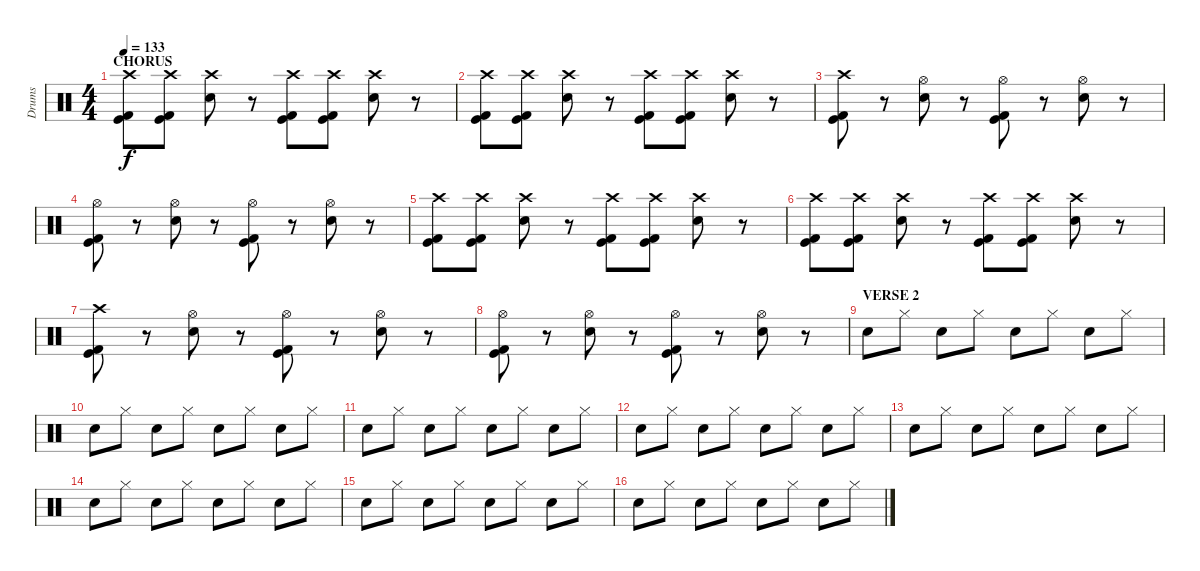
\track ("Drums" "Drums") {instrument percussion}
\staff {score}
\articulation defaults
\ts (4 4)
\section ("" "CHORUS")
\tempo 133
\clef neutral
\ks c
("Crash high (hit)" "Kick (hit) 2" "Kick (hit)").8{dy f} ("Crash high (hit)" "Kick (hit) 2" "Kick (hit)").8 ("Crash high (hit)" "Electric Snare (hit)").8 r.8 ("Crash high (hit)" "Kick (hit) 2" "Kick (hit)").8 ("Crash high (hit)" "Kick (hit) 2" "Kick (hit)").8 ("Crash high (hit)" "Electric Snare (hit)").8 r.8 |
("Crash high (hit)" "Kick (hit) 2" "Kick (hit)").8 ("Crash high (hit)" "Kick (hit) 2" "Kick (hit)").8 ("Crash high (hit)" "Electric Snare (hit)").8 r.8 ("Crash high (hit)" "Kick (hit) 2" "Kick (hit)").8 ("Crash high (hit)" "Kick (hit) 2" "Kick (hit)").8 ("Crash high (hit)" "Electric Snare (hit)").8 r.8 |
("Crash high (hit)" "Kick (hit) 2" "Kick (hit)").8 r.8 ("Hi-Hat (open)" "Electric Snare (hit)").8 r.8 ("Hi-Hat (open)" "Kick (hit) 2" "Kick (hit)").8 r.8 ("Hi-Hat (open)" "Electric Snare (hit)").8 r.8 |
("Hi-Hat (open)" "Kick (hit) 2" "Kick (hit)").8 r.8 ("Hi-Hat (open)" "Electric Snare (hit)").8 r.8 ("Hi-Hat (open)" "Kick (hit) 2" "Kick (hit)").8 r.8 ("Hi-Hat (open)" "Electric Snare (hit)").8 r.8 |
("Crash high (hit)" "Kick (hit) 2" "Kick (hit)").8 ("Crash high (hit)" "Kick (hit) 2" "Kick (hit)").8 ("Crash high (hit)" "Electric Snare (hit)").8 r.8 ("Crash high (hit)" "Kick (hit) 2" "Kick (hit)").8 ("Crash high (hit)" "Kick (hit) 2" "Kick (hit)").8 ("Crash high (hit)" "Electric Snare (hit)").8 r.8 |
("Crash high (hit)" "Kick (hit) 2" "Kick (hit)").8 ("Crash high (hit)" "Kick (hit) 2" "Kick (hit)").8 ("Crash high (hit)" "Electric Snare (hit)").8 r.8 ("Crash high (hit)" "Kick (hit) 2" "Kick (hit)").8 ("Crash high (hit)" "Kick (hit) 2" "Kick (hit)").8 ("Crash high (hit)" "Electric Snare (hit)").8 r.8 |
("Crash high (hit)" "Kick (hit) 2" "Kick (hit)").8 r.8 ("Hi-Hat (open)" "Electric Snare (hit)").8 r.8 ("Hi-Hat (open)" "Kick (hit) 2" "Kick (hit)").8 r.8 ("Hi-Hat (open)" "Electric Snare (hit)").8 r.8 |
("Hi-Hat (open)" "Kick (hit) 2" "Kick (hit)").8 r.8 ("Hi-Hat (open)" "Electric Snare (hit)").8 r.8 ("Hi-Hat (open)" "Kick (hit) 2" "Kick (hit)").8 r.8 ("Hi-Hat (open)" "Electric Snare (hit)").8 r.8 |
\section ("" "VERSE 2")
"Electric Snare (hit)".8 "Hi-Hat (closed)".8 "Electric Snare (hit)".8 "Hi-Hat (closed)".8 "Electric Snare (hit)".8 "Hi-Hat (closed)".8 "Electric Snare (hit)".8 "Hi-Hat (closed)".8 |
"Electric Snare (hit)".8 "Hi-Hat (closed)".8 "Electric Snare (hit)".8 "Hi-Hat (closed)".8 "Electric Snare (hit)".8 "Hi-Hat (closed)".8 "Electric Snare (hit)".8 "Hi-Hat (closed)".8 |
"Electric Snare (hit)".8 "Hi-Hat (closed)".8 "Electric Snare (hit)".8 "Hi-Hat (closed)".8 "Electric Snare (hit)".8 "Hi-Hat (closed)".8 "Electric Snare (hit)".8 "Hi-Hat (closed)".8 |
"Electric Snare (hit)".8 "Hi-Hat (closed)".8 "Electric Snare (hit)".8 "Hi-Hat (closed)".8 "Electric Snare (hit)".8 "Hi-Hat (closed)".8 "Electric Snare (hit)".8 "Hi-Hat (closed)".8 |
"Electric Snare (hit)".8 "Hi-Hat (closed)".8 "Electric Snare (hit)".8 "Hi-Hat (closed)".8 "Electric Snare (hit)".8 "Hi-Hat (closed)".8 "Electric Snare (hit)".8 "Hi-Hat (closed)".8 |
"Electric Snare (hit)".8 "Hi-Hat (closed)".8 "Electric Snare (hit)".8 "Hi-Hat (closed)".8 "Electric Snare (hit)".8 "Hi-Hat (closed)".8 "Electric Snare (hit)".8 "Hi-Hat (closed)".8 |
"Electric Snare (hit)".8 "Hi-Hat (closed)".8 "Electric Snare (hit)".8 "Hi-Hat (closed)".8 "Electric Snare (hit)".8 "Hi-Hat (closed)".8 "Electric Snare (hit)".8 "Hi-Hat (closed)".8 |
"Electric Snare (hit)".8 "Hi-Hat (closed)".8 "Electric Snare (hit)".8 "Hi-Hat (closed)".8 "Electric Snare (hit)".8 "Hi-Hat (closed)".8 "Electric Snare (hit)".8 "Hi-Hat (closed)".8
